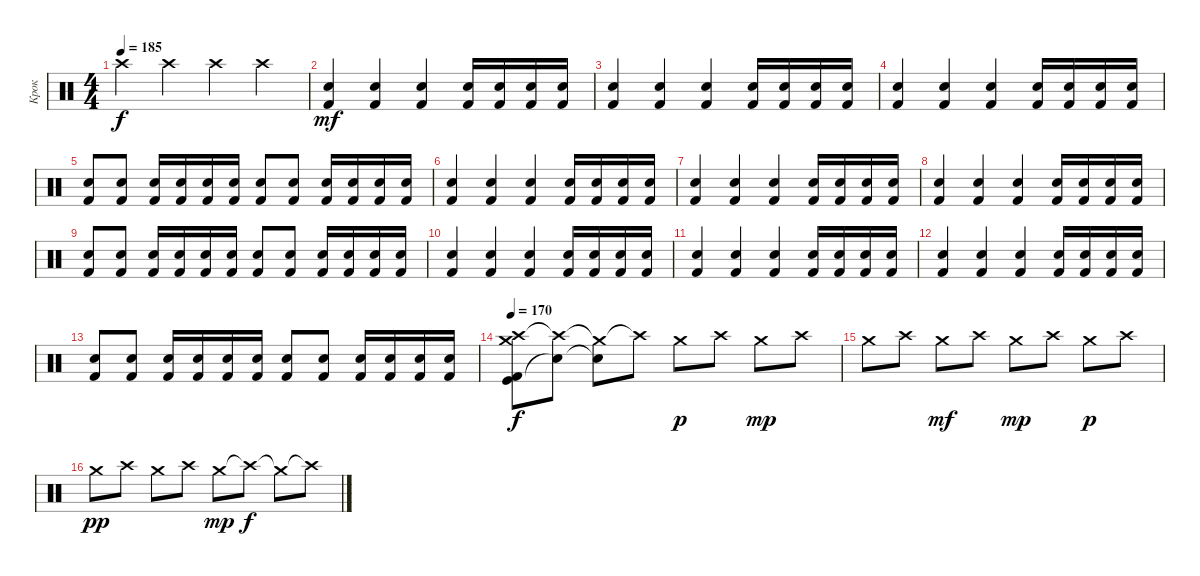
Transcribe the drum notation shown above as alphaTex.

\track ("Крок" "Крок") {instrument percussion}
\staff {score}
\articulation defaults
\ts (4 4)
\tempo 185
\clef neutral
\ks c "Crash high (hit)".4{dy f} "Crash high (hit)".4 "Crash high (hit)".4 "Crash high (hit)".4
|
\ks aminor
("Electric Snare (hit)" "Kick (hit) 2").4{dy mf} ("Electric Snare (hit)" "Kick (hit) 2").4 ("Electric Snare (hit)" "Kick (hit) 2").4 ("Electric Snare (hit)" "Kick (hit) 2").16 ("Electric Snare (hit)" "Kick (hit) 2").16 ("Electric Snare (hit)" "Kick (hit) 2").16 ("Electric Snare (hit)" "Kick (hit) 2").16 |
("Electric Snare (hit)" "Kick (hit) 2").4 ("Electric Snare (hit)" "Kick (hit) 2").4 ("Electric Snare (hit)" "Kick (hit) 2").4 ("Electric Snare (hit)" "Kick (hit) 2").16 ("Electric Snare (hit)" "Kick (hit) 2").16 ("Electric Snare (hit)" "Kick (hit) 2").16 ("Electric Snare (hit)" "Kick (hit) 2").16 |
("Electric Snare (hit)" "Kick (hit) 2").4 ("Electric Snare (hit)" "Kick (hit) 2").4 ("Electric Snare (hit)" "Kick (hit) 2").4 ("Electric Snare (hit)" "Kick (hit) 2").16 ("Electric Snare (hit)" "Kick (hit) 2").16 ("Electric Snare (hit)" "Kick (hit) 2").16 ("Electric Snare (hit)" "Kick (hit) 2").16 |
("Electric Snare (hit)" "Kick (hit) 2").8 ("Electric Snare (hit)" "Kick (hit) 2").8 ("Electric Snare (hit)" "Kick (hit) 2").16 ("Electric Snare (hit)" "Kick (hit) 2").16 ("Electric Snare (hit)" "Kick (hit) 2").16 ("Electric Snare (hit)" "Kick (hit) 2").16 ("Electric Snare (hit)" "Kick (hit) 2").8 ("Electric Snare (hit)" "Kick (hit) 2").8 ("Electric Snare (hit)" "Kick (hit) 2").16 ("Electric Snare (hit)" "Kick (hit) 2").16 ("Electric Snare (hit)" "Kick (hit) 2").16 ("Electric Snare (hit)" "Kick (hit) 2").16 |
("Electric Snare (hit)" "Kick (hit) 2").4 ("Electric Snare (hit)" "Kick (hit) 2").4 ("Electric Snare (hit)" "Kick (hit) 2").4 ("Electric Snare (hit)" "Kick (hit) 2").16 ("Electric Snare (hit)" "Kick (hit) 2").16 ("Electric Snare (hit)" "Kick (hit) 2").16 ("Electric Snare (hit)" "Kick (hit) 2").16 |
("Electric Snare (hit)" "Kick (hit) 2").4 ("Electric Snare (hit)" "Kick (hit) 2").4 ("Electric Snare (hit)" "Kick (hit) 2").4 ("Electric Snare (hit)" "Kick (hit) 2").16 ("Electric Snare (hit)" "Kick (hit) 2").16 ("Electric Snare (hit)" "Kick (hit) 2").16 ("Electric Snare (hit)" "Kick (hit) 2").16 |
("Electric Snare (hit)" "Kick (hit) 2").4 ("Electric Snare (hit)" "Kick (hit) 2").4 ("Electric Snare (hit)" "Kick (hit) 2").4 ("Electric Snare (hit)" "Kick (hit) 2").16 ("Electric Snare (hit)" "Kick (hit) 2").16 ("Electric Snare (hit)" "Kick (hit) 2").16 ("Electric Snare (hit)" "Kick (hit) 2").16 |
("Electric Snare (hit)" "Kick (hit) 2").8 ("Electric Snare (hit)" "Kick (hit) 2").8 ("Electric Snare (hit)" "Kick (hit) 2").16 ("Electric Snare (hit)" "Kick (hit) 2").16 ("Electric Snare (hit)" "Kick (hit) 2").16 ("Electric Snare (hit)" "Kick (hit) 2").16 ("Electric Snare (hit)" "Kick (hit) 2").8 ("Electric Snare (hit)" "Kick (hit) 2").8 ("Electric Snare (hit)" "Kick (hit) 2").16 ("Electric Snare (hit)" "Kick (hit) 2").16 ("Electric Snare (hit)" "Kick (hit) 2").16 ("Electric Snare (hit)" "Kick (hit) 2").16 |
("Electric Snare (hit)" "Kick (hit) 2").4 ("Electric Snare (hit)" "Kick (hit) 2").4 ("Electric Snare (hit)" "Kick (hit) 2").4 ("Electric Snare (hit)" "Kick (hit) 2").16 ("Electric Snare (hit)" "Kick (hit) 2").16 ("Electric Snare (hit)" "Kick (hit) 2").16 ("Electric Snare (hit)" "Kick (hit) 2").16 |
("Electric Snare (hit)" "Kick (hit) 2").4 ("Electric Snare (hit)" "Kick (hit) 2").4 ("Electric Snare (hit)" "Kick (hit) 2").4 ("Electric Snare (hit)" "Kick (hit) 2").16 ("Electric Snare (hit)" "Kick (hit) 2").16 ("Electric Snare (hit)" "Kick (hit) 2").16 ("Electric Snare (hit)" "Kick (hit) 2").16 |
("Electric Snare (hit)" "Kick (hit) 2").4 ("Electric Snare (hit)" "Kick (hit) 2").4 ("Electric Snare (hit)" "Kick (hit) 2").4 ("Electric Snare (hit)" "Kick (hit) 2").16 ("Electric Snare (hit)" "Kick (hit) 2").16 ("Electric Snare (hit)" "Kick (hit) 2").16 ("Electric Snare (hit)" "Kick (hit) 2").16 |
("Electric Snare (hit)" "Kick (hit) 2").8 ("Electric Snare (hit)" "Kick (hit) 2").8 ("Electric Snare (hit)" "Kick (hit) 2").16 ("Electric Snare (hit)" "Kick (hit) 2").16 ("Electric Snare (hit)" "Kick (hit) 2").16 ("Electric Snare (hit)" "Kick (hit) 2").16 ("Electric Snare (hit)" "Kick (hit) 2").8 ("Electric Snare (hit)" "Kick (hit) 2").8 ("Electric Snare (hit)" "Kick (hit) 2").16 ("Electric Snare (hit)" "Kick (hit) 2").16 ("Electric Snare (hit)" "Kick (hit) 2").16 ("Electric Snare (hit)" "Kick (hit) 2").16 |
\tempo 170
("Crash high (hit)" "Kick (hit)" "Kick (hit) 2" "Crash medium (hit)").8{dy f} ("Crash high (hit)"{t} "Snare (hit)"{t}).8 ("Crash medium (hit)"{t} "Snare (hit)"{t}).8 "Crash high (hit)"{t}.8 "Crash medium (hit)".8{dy p} "Crash high (hit)".8 "Crash medium (hit)".8{dy mp} "Crash high (hit)".8 |
"Crash medium (hit)".8 "Crash high (hit)".8 "Crash medium (hit)".8{dy mf} "Crash high (hit)".8 "Crash medium (hit)".8{dy mp} "Crash high (hit)".8 "Crash medium (hit)".8{dy p} "Crash high (hit)".8 |
"Crash medium (hit)".8{dy pp} "Crash high (hit)".8 "Crash medium (hit)".8 "Crash high (hit)".8 "Crash medium (hit)".8{dy mp} "Crash high (hit)"{t}.8{dy f} "Crash medium (hit)"{t}.8 "Crash high (hit)"{t}.8
